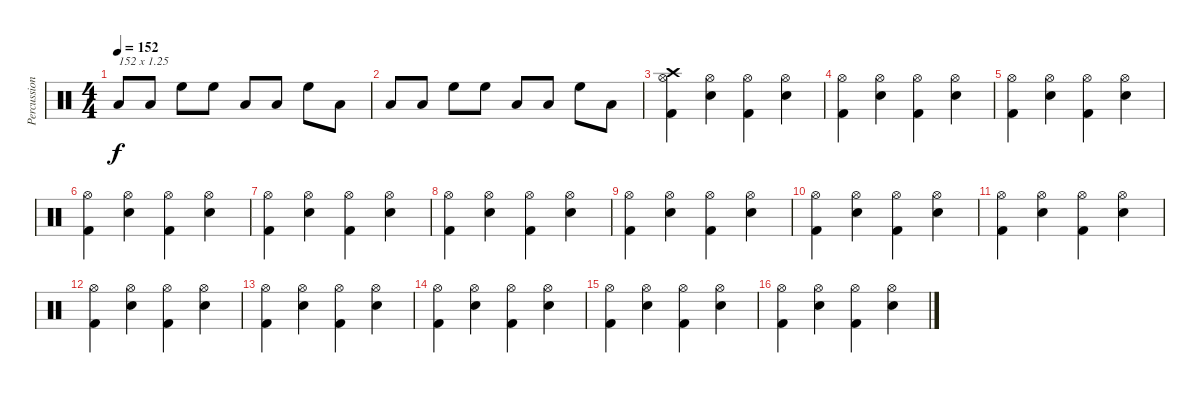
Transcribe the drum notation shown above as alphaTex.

\track ("Percussion" "Percussion") {instrument percussion}
\staff {score}
\articulation defaults
\ts (4 4)
\tempo 152
\clef neutral
\ks c "Low Tom (hit)".8{txt "152 x 1.25" dy f} "Low Tom (hit)".8 "High Floor Tom (hit)".8 "High Floor Tom (hit)".8 "Low Tom (hit)".8 "Low Tom (hit)".8 "High Floor Tom (hit)".8 "Low Tom (hit)".8
|
"Low Tom (hit)".8 "Low Tom (hit)".8 "High Floor Tom (hit)".8 "High Floor Tom (hit)".8 "Low Tom (hit)".8 "Low Tom (hit)".8 "High Floor Tom (hit)".8 "Low Tom (hit)".8 |
("Crash high (hit)" "Hi-Hat (open)" "Kick (hit) 2").4 ("Hi-Hat (open)" "Electric Snare (hit)").4 ("Hi-Hat (open)" "Kick (hit) 2").4 ("Hi-Hat (open)" "Electric Snare (hit)").4 |
("Hi-Hat (open)" "Kick (hit) 2").4 ("Hi-Hat (open)" "Electric Snare (hit)").4 ("Hi-Hat (open)" "Kick (hit) 2").4 ("Hi-Hat (open)" "Electric Snare (hit)").4 |
("Hi-Hat (open)" "Kick (hit) 2").4 ("Hi-Hat (open)" "Electric Snare (hit)").4 ("Hi-Hat (open)" "Kick (hit) 2").4 ("Hi-Hat (open)" "Electric Snare (hit)").4 |
("Hi-Hat (open)" "Kick (hit) 2").4 ("Hi-Hat (open)" "Electric Snare (hit)").4 ("Hi-Hat (open)" "Kick (hit) 2").4 ("Hi-Hat (open)" "Electric Snare (hit)").4 |
("Hi-Hat (open)" "Kick (hit) 2").4 ("Hi-Hat (open)" "Electric Snare (hit)").4 ("Hi-Hat (open)" "Kick (hit) 2").4 ("Hi-Hat (open)" "Electric Snare (hit)").4 |
("Hi-Hat (open)" "Kick (hit) 2").4 ("Hi-Hat (open)" "Electric Snare (hit)").4 ("Hi-Hat (open)" "Kick (hit) 2").4 ("Hi-Hat (open)" "Electric Snare (hit)").4 |
("Hi-Hat (open)" "Kick (hit) 2").4 ("Hi-Hat (open)" "Electric Snare (hit)").4 ("Hi-Hat (open)" "Kick (hit) 2").4 ("Hi-Hat (open)" "Electric Snare (hit)").4 |
("Hi-Hat (open)" "Kick (hit) 2").4 ("Hi-Hat (open)" "Electric Snare (hit)").4 ("Hi-Hat (open)" "Kick (hit) 2").4 ("Hi-Hat (open)" "Electric Snare (hit)").4 |
("Hi-Hat (open)" "Kick (hit) 2").4 ("Hi-Hat (open)" "Electric Snare (hit)").4 ("Hi-Hat (open)" "Kick (hit) 2").4 ("Hi-Hat (open)" "Electric Snare (hit)").4 |
("Hi-Hat (open)" "Kick (hit) 2").4 ("Hi-Hat (open)" "Electric Snare (hit)").4 ("Hi-Hat (open)" "Kick (hit) 2").4 ("Hi-Hat (open)" "Electric Snare (hit)").4 |
("Hi-Hat (open)" "Kick (hit) 2").4 ("Hi-Hat (open)" "Electric Snare (hit)").4 ("Hi-Hat (open)" "Kick (hit) 2").4 ("Hi-Hat (open)" "Electric Snare (hit)").4 |
("Hi-Hat (open)" "Kick (hit) 2").4 ("Hi-Hat (open)" "Electric Snare (hit)").4 ("Hi-Hat (open)" "Kick (hit) 2").4 ("Hi-Hat (open)" "Electric Snare (hit)").4 |
("Hi-Hat (open)" "Kick (hit) 2").4 ("Hi-Hat (open)" "Electric Snare (hit)").4 ("Hi-Hat (open)" "Kick (hit) 2").4 ("Hi-Hat (open)" "Electric Snare (hit)").4 |
("Hi-Hat (open)" "Kick (hit) 2").4 ("Hi-Hat (open)" "Electric Snare (hit)").4 ("Hi-Hat (open)" "Kick (hit) 2").4 ("Hi-Hat (open)" "Electric Snare (hit)").4
